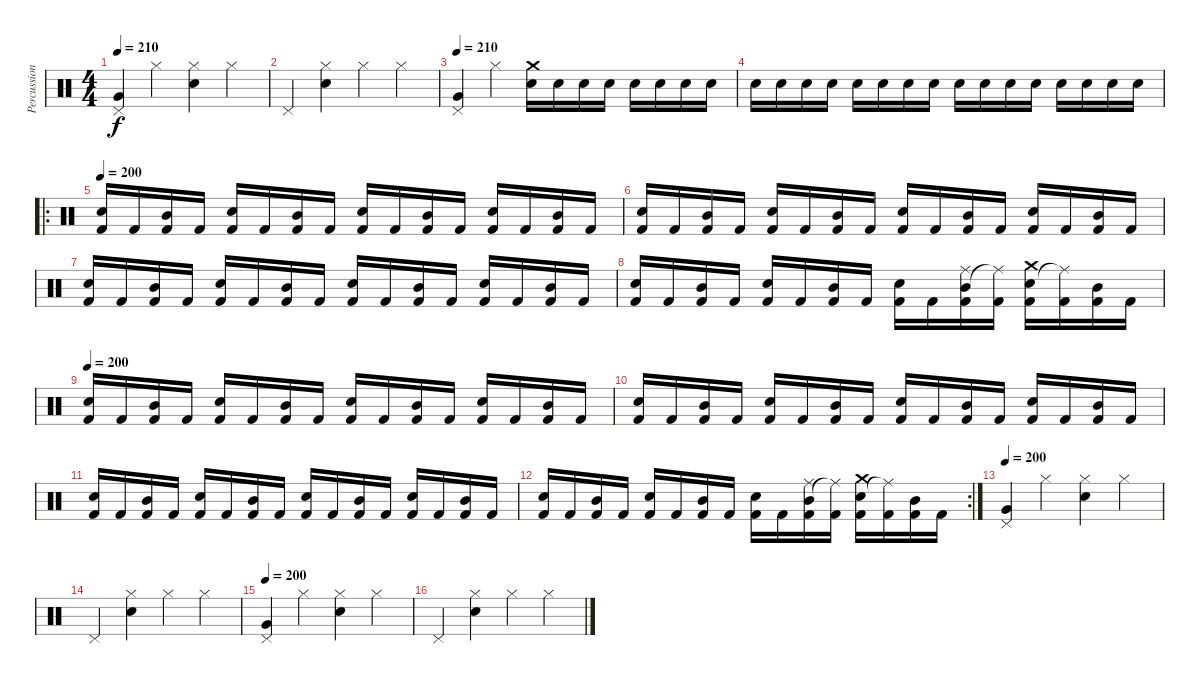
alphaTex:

\track ("Percussion" "Percussion") {instrument percussion}
\staff {score}
\articulation defaults
\ts (4 4)
\tempo 210
\clef neutral
\ks c
("Pedal Hi-Hat (hit)" "Very Low Tom (hit)").4{dy f volume 11} "Hi-Hat (closed)".4 ("Hi-Hat (closed)" "Snare (hit) 2").4 "Hi-Hat (closed)".4 |
"Pedal Hi-Hat (hit)".4 ("Hi-Hat (closed)" "Snare (hit) 2").4 "Hi-Hat (closed)".4 "Hi-Hat (closed)".4 |
\tempo 210
("Pedal Hi-Hat (hit)" "Very Low Tom (hit)").4{volume 11} "Hi-Hat (closed)".4 ("Crash medium (hit)" "Snare (hit) 2").16 "Snare (hit) 2".16 "Snare (hit) 2".16 "Snare (hit) 2".16 "Snare (hit) 2".16 "Snare (hit) 2".16 "Snare (hit) 2".16 "Snare (hit) 2".16 |
"Snare (hit) 2".16 "Snare (hit) 2".16 "Snare (hit) 2".16 "Snare (hit) 2".16 "Electric Snare (hit)".16 "Electric Snare (hit)".16 "Electric Snare (hit)".16 "Electric Snare (hit)".16 "Electric Snare (hit)".16 "Electric Snare (hit)".16 "Electric Snare (hit)".16 "Electric Snare (hit)".16 "Electric Snare (hit)".16 "Electric Snare (hit)".16 "Electric Snare (hit)".16 "Electric Snare (hit)".16 |
\ro
\tempo 200
("Electric Snare (hit)" "Kick (hit) 2").16 "Kick (hit) 2".16 ("Mid Tom (hit)" "Kick (hit) 2").16 "Kick (hit) 2".16 ("Electric Snare (hit)" "Kick (hit) 2").16 "Kick (hit) 2".16 ("Mid Tom (hit)" "Kick (hit) 2").16 "Kick (hit) 2".16 ("Electric Snare (hit)" "Kick (hit) 2").16 "Kick (hit) 2".16 ("Mid Tom (hit)" "Kick (hit) 2").16 "Kick (hit) 2".16 ("Electric Snare (hit)" "Kick (hit) 2").16 "Kick (hit) 2".16 ("Mid Tom (hit)" "Kick (hit) 2").16 "Kick (hit) 2".16 |
("Electric Snare (hit)" "Kick (hit) 2").16 "Kick (hit) 2".16 ("Mid Tom (hit)" "Kick (hit) 2").16 "Kick (hit) 2".16 ("Electric Snare (hit)" "Kick (hit) 2").16 "Kick (hit) 2".16 ("Mid Tom (hit)" "Kick (hit) 2").16 "Kick (hit) 2".16 ("Electric Snare (hit)" "Kick (hit) 2").16 "Kick (hit) 2".16 ("Mid Tom (hit)" "Kick (hit) 2").16 "Kick (hit) 2".16 ("Electric Snare (hit)" "Kick (hit) 2").16 "Kick (hit) 2".16 ("Mid Tom (hit)" "Kick (hit) 2").16 "Kick (hit) 2".16 |
("Electric Snare (hit)" "Kick (hit) 2").16 "Kick (hit) 2".16 ("Mid Tom (hit)" "Kick (hit) 2").16 "Kick (hit) 2".16 ("Electric Snare (hit)" "Kick (hit) 2").16 "Kick (hit) 2".16 ("Mid Tom (hit)" "Kick (hit) 2").16 "Kick (hit) 2".16 ("Electric Snare (hit)" "Kick (hit) 2").16 "Kick (hit) 2".16 ("Mid Tom (hit)" "Kick (hit) 2").16 "Kick (hit) 2".16 ("Electric Snare (hit)" "Kick (hit) 2").16 "Kick (hit) 2".16 ("Mid Tom (hit)" "Kick (hit) 2").16 "Kick (hit) 2".16 |
("Electric Snare (hit)" "Kick (hit) 2").16 "Kick (hit) 2".16 ("Mid Tom (hit)" "Kick (hit) 2").16 "Kick (hit) 2".16 ("Electric Snare (hit)" "Kick (hit) 2").16 "Kick (hit) 2".16 ("Mid Tom (hit)" "Kick (hit) 2").16 "Kick (hit) 2".16 ("Electric Snare (hit)" "Kick (hit) 2").16 "Kick (hit) 2".16 ("Mid Tom (hit)" "Ride (middle)" "Kick (hit) 2").16 ("Ride (middle)"{t} "Kick (hit) 2").16 ("Electric Snare (hit)" "Crash medium (hit)" "Kick (hit) 2").16 ("Ride (middle)"{t} "Kick (hit) 2").16 ("Mid Tom (hit)" "Kick (hit) 2").16 "Kick (hit) 2".16 |
\tempo 200
("Electric Snare (hit)" "Kick (hit) 2").16 "Kick (hit) 2".16 ("Mid Tom (hit)" "Kick (hit) 2").16 "Kick (hit) 2".16 ("Electric Snare (hit)" "Kick (hit) 2").16 "Kick (hit) 2".16 ("Mid Tom (hit)" "Kick (hit) 2").16 "Kick (hit) 2".16 ("Electric Snare (hit)" "Kick (hit) 2").16 "Kick (hit) 2".16 ("Mid Tom (hit)" "Kick (hit) 2").16 "Kick (hit) 2".16 ("Electric Snare (hit)" "Kick (hit) 2").16 "Kick (hit) 2".16 ("Mid Tom (hit)" "Kick (hit) 2").16 "Kick (hit) 2".16 |
("Electric Snare (hit)" "Kick (hit) 2").16 "Kick (hit) 2".16 ("Mid Tom (hit)" "Kick (hit) 2").16 "Kick (hit) 2".16 ("Electric Snare (hit)" "Kick (hit) 2").16 "Kick (hit) 2".16 ("Mid Tom (hit)" "Kick (hit) 2").16 "Kick (hit) 2".16 ("Electric Snare (hit)" "Kick (hit) 2").16 "Kick (hit) 2".16 ("Mid Tom (hit)" "Kick (hit) 2").16 "Kick (hit) 2".16 ("Electric Snare (hit)" "Kick (hit) 2").16 "Kick (hit) 2".16 ("Mid Tom (hit)" "Kick (hit) 2").16 "Kick (hit) 2".16 |
("Electric Snare (hit)" "Kick (hit) 2").16 "Kick (hit) 2".16 ("Mid Tom (hit)" "Kick (hit) 2").16 "Kick (hit) 2".16 ("Electric Snare (hit)" "Kick (hit) 2").16 "Kick (hit) 2".16 ("Mid Tom (hit)" "Kick (hit) 2").16 "Kick (hit) 2".16 ("Electric Snare (hit)" "Kick (hit) 2").16 "Kick (hit) 2".16 ("Mid Tom (hit)" "Kick (hit) 2").16 "Kick (hit) 2".16 ("Electric Snare (hit)" "Kick (hit) 2").16 "Kick (hit) 2".16 ("Mid Tom (hit)" "Kick (hit) 2").16 "Kick (hit) 2".16 |
\rc 2
("Electric Snare (hit)" "Kick (hit) 2").16 "Kick (hit) 2".16 ("Mid Tom (hit)" "Kick (hit) 2").16 "Kick (hit) 2".16 ("Electric Snare (hit)" "Kick (hit) 2").16 "Kick (hit) 2".16 ("Mid Tom (hit)" "Kick (hit) 2").16 "Kick (hit) 2".16 ("Electric Snare (hit)" "Kick (hit) 2").16 "Kick (hit) 2".16 ("Mid Tom (hit)" "Ride (middle)" "Kick (hit) 2").16 ("Ride (middle)"{t} "Kick (hit) 2").16 ("Electric Snare (hit)" "Crash medium (hit)" "Kick (hit) 2").16 ("Ride (middle)"{t} "Kick (hit) 2").16 ("Mid Tom (hit)" "Kick (hit) 2").16 "Kick (hit) 2".16 |
\tempo 200
("Pedal Hi-Hat (hit)" "Very Low Tom (hit)").4{volume 11} "Hi-Hat (closed)".4 ("Hi-Hat (closed)" "Snare (hit) 2").4 "Hi-Hat (closed)".4 |
"Pedal Hi-Hat (hit)".4 ("Hi-Hat (closed)" "Snare (hit) 2").4 "Hi-Hat (closed)".4 "Hi-Hat (closed)".4 |
\tempo 200
("Pedal Hi-Hat (hit)" "Very Low Tom (hit)").4 "Hi-Hat (closed)".4 ("Hi-Hat (closed)" "Snare (hit) 2").4 "Hi-Hat (closed)".4 |
"Pedal Hi-Hat (hit)".4 ("Hi-Hat (closed)" "Snare (hit) 2").4 "Hi-Hat (closed)".4 "Hi-Hat (closed)".4
